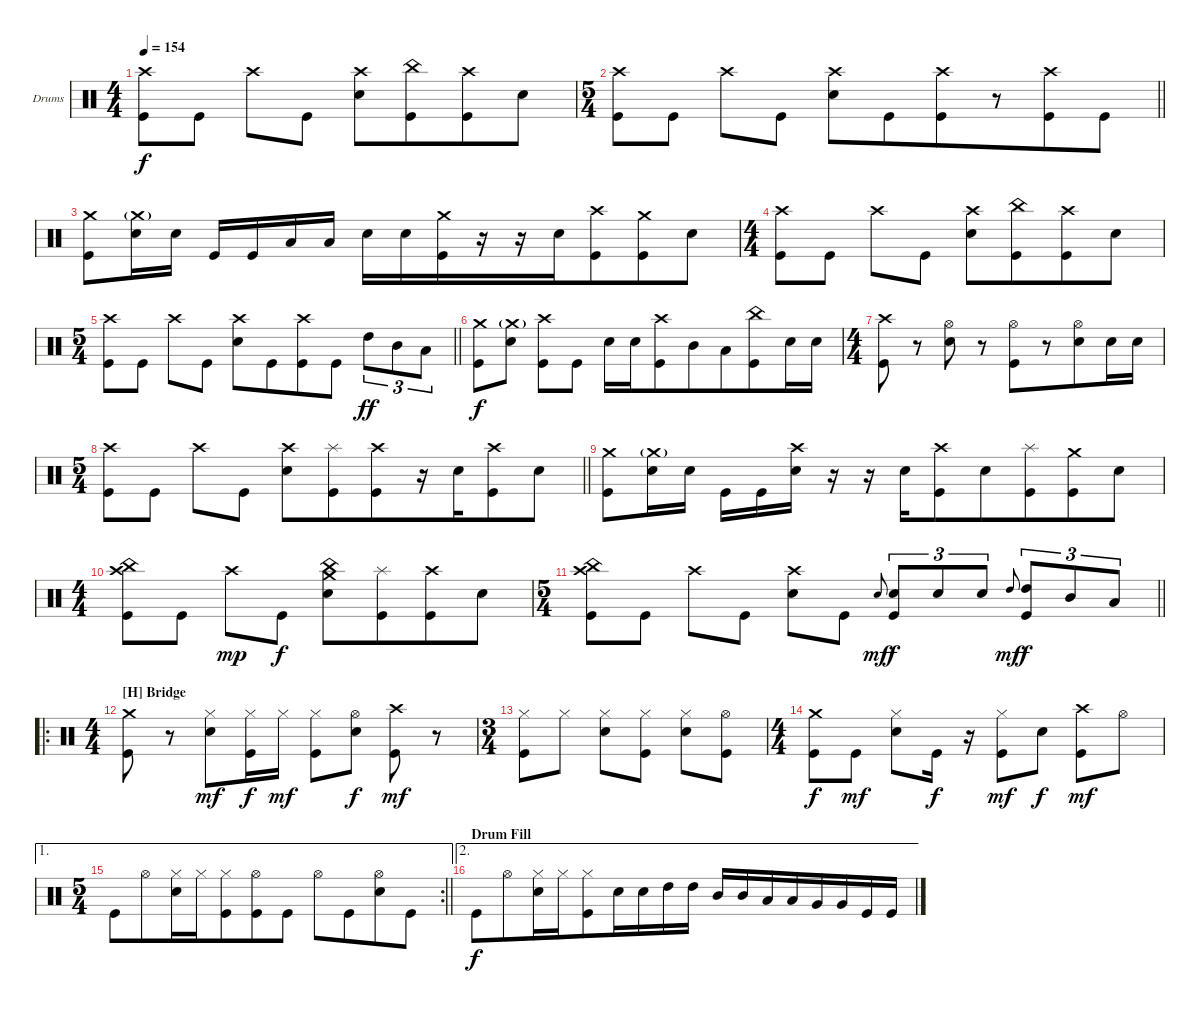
\bracketExtendMode groupsimilarinstruments
\firstSystemTrackNameOrientation horizontal
\otherSystemsTrackNameOrientation horizontal
\track ("Navene Koperweis" "Drums") {instrument percussion}
\staff {score}
\articulation defaults
\ts (4 4)
\beaming (8 2 2 4)
\tempo 154
\clef neutral
\ks c
("Crash high (hit)" "Kick (hit)").8{dy f} "Kick (hit)".8 "Crash high (hit)".8 "Kick (hit)".8 ("Crash high (hit)" "Snare (hit) 2").8 ("China (hit)" "Kick (hit)").8 ("Crash high (hit)" "Kick (hit)").8 "Snare (hit) 2".8 |
\ts (5 4)
\beaming (8 2 2 6)
\barLineRight lightlight
("Crash high (hit)" "Kick (hit)").8 "Kick (hit)".8 "Crash high (hit)".8 "Kick (hit)".8 ("Crash high (hit)" "Snare (hit) 2").8 "Kick (hit)".8 ("Crash high (hit)" "Kick (hit)").8 r.8 ("Crash high (hit)" "Kick (hit)").8 "Kick (hit)".8 |
("Crash medium (hit)" "Kick (hit)").8 ("Crash medium (hit)"{g} "Snare (hit) 2").16 "Snare (hit) 2".16 "Kick (hit)".16 "Kick (hit)".16 "Low Tom (hit)".16 "Low Tom (hit)".16 "Snare (hit) 2".16 "Snare (hit) 2".16 ("Crash medium (hit)" "Kick (hit)").16 r.16 r.16 "Snare (hit) 2".16 ("Crash high (hit)" "Kick (hit)").8 ("Crash medium (hit)" "Kick (hit)").8 "Snare (hit) 2".8 |
\ts (4 4)
\beaming (8 2 2 4)
("Crash high (hit)" "Kick (hit)").8 "Kick (hit)".8 "Crash high (hit)".8 "Kick (hit)".8 ("Crash high (hit)" "Snare (hit) 2").8 ("China (hit)" "Kick (hit)").8 ("Crash high (hit)" "Kick (hit)").8 "Snare (hit) 2".8 |
\ts (5 4)
\beaming (8 2 2 6)
\barLineRight lightlight
("Crash high (hit)" "Kick (hit)").8 "Kick (hit)".8 "Crash high (hit)".8 "Kick (hit)".8 ("Crash high (hit)" "Snare (hit) 2").8 "Kick (hit)".8 ("Crash high (hit)" "Kick (hit)").8 "Kick (hit)".8 "High Tom (hit)".8{tu (3 2) dy ff} "Mid Tom (hit)".8{tu (3 2)} "Low Tom (hit)".8{tu (3 2)} |
("Crash medium (hit)" "Kick (hit)").8{dy f} ("Crash medium (hit)"{g} "Snare (hit) 2").8 ("Crash high (hit)" "Kick (hit)").8 "Kick (hit)".8 "Snare (hit) 2".16 "Snare (hit) 2".16 ("Crash high (hit)" "Kick (hit)").8 "Mid Tom (hit)".8 "Low Tom (hit)".8 ("China (hit)" "Kick (hit)").8 "Snare (hit) 2".16 "Snare (hit) 2".16 |
\ts (4 4)
\beaming (8 2 2 4)
("Crash high (hit)" "Kick (hit)").8 r.8 ("Hi-Hat (open)" "Snare (hit) 2").8 r.8 ("Hi-Hat (open)" "Kick (hit)").8 r.8 ("Hi-Hat (open)" "Snare (hit) 2").8 "Snare (hit) 2".16 "Snare (hit) 2".16 |
\ts (5 4)
\beaming (8 2 2 6)
\barLineRight lightlight
("Crash high (hit)" "Kick (hit)").8 "Kick (hit)".8 "Crash high (hit)".8 "Kick (hit)".8 ("Crash high (hit)" "Snare (hit) 2").8 ("Splash (hit)" "Kick (hit)").8 ("Crash high (hit)" "Kick (hit)").8 r.16 "Snare (hit) 2".16 ("Crash high (hit)" "Kick (hit)").8 "Snare (hit) 2".8 |
("Crash medium (hit)" "Kick (hit)").8 ("Crash medium (hit)"{g} "Snare (hit) 2").16 "Snare (hit) 2".16 "Kick (hit)".16 "Kick (hit)".16 ("Crash high (hit)" "Snare (hit) 2").16 r.16 r.16 "Snare (hit) 2".16 ("Crash high (hit)" "Kick (hit)").8 "Snare (hit) 2".8 ("Splash (hit)" "Kick (hit)").8 ("Crash medium (hit)" "Kick (hit)").8 "Snare (hit) 2".8 |
\ts (4 4)
\beaming (8 2 2 4)
("Crash high (hit)" "China (hit)" "Kick (hit)").8 "Kick (hit)".8 "Crash high (hit)".8{dy mp} "Kick (hit)".8{dy f} ("Crash medium (hit)" "China (hit)" "Snare (hit) 2").8 ("Splash (hit)" "Kick (hit)").8 ("Crash high (hit)" "Kick (hit)").8 "Snare (hit) 2".8 |
\ts (5 4)
\beaming (8 2 2 6)
\barLineRight lightlight
("Crash high (hit)" "China (hit)" "Kick (hit)").8 "Kick (hit)".8 "Crash high (hit)".8 "Kick (hit)".8 ("Crash high (hit)" "Snare (hit) 2").8 "Kick (hit)".8 "Snare (hit) 2".8{gr onbeat dy mf} ("Snare (hit) 2" "Kick (hit)").8{tu (3 2) dy f} "Snare (hit) 2".8{tu (3 2)} "Snare (hit) 2".8{tu (3 2)} "High Tom (hit)".8{gr onbeat dy mf} ("High Tom (hit)" "Kick (hit)").8{tu (3 2) dy f} "Mid Tom (hit)".8{tu (3 2)} "Low Tom (hit)".8{tu (3 2)} |
\ro
\ts (4 4)
\beaming (8 2 2 2 2)
\section ("H" "Bridge")
("Crash medium (hit)" "Kick (hit)").8 r.8 ("Hi-Hat (closed)" "Snare (hit) 2").8{dy mf} ("Hi-Hat (closed)" "Kick (hit)").16{dy f} "Hi-Hat (closed)".16{dy mf} ("Hi-Hat (closed)" "Kick (hit)").8 ("Hi-Hat (open)" "Snare (hit) 2").8{dy f} ("Crash high (hit)" "Kick (hit)").8{dy mf} r.8 |
\ts (3 4)
\beaming (8 2 2 2)
("Hi-Hat (closed)" "Kick (hit)").8 "Hi-Hat (closed)".8 ("Hi-Hat (closed)" "Snare (hit) 2").8 ("Hi-Hat (closed)" "Kick (hit)").8 ("Hi-Hat (closed)" "Snare (hit) 2").8 ("Hi-Hat (open)" "Kick (hit)").8 |
\ts (4 4)
\beaming (8 2 2 2 2)
("Crash medium (hit)" "Kick (hit)").8{dy f} "Kick (hit)".8{dy mf} ("Hi-Hat (closed)" "Snare (hit) 2").8 "Kick (hit)".16{dy f} r.16 ("Hi-Hat (closed)" "Kick (hit)").8{dy mf} "Snare (hit) 2".8{dy f} ("Crash high (hit)" "Kick (hit)").8{dy mf} "Hi-Hat (open)".8 |
\ae 1
\rc 2
\ts (5 4)
\beaming (8 6 4)
\barLineRight lightlight "Kick (hit)".8 "Hi-Hat (open)".8
("Hi-Hat (closed)" "Snare (hit) 2").16 "Hi-Hat (closed)".16 ("Hi-Hat (closed)" "Kick (hit)").8 ("Hi-Hat (open)" "Kick (hit)").8 "Kick (hit)".8 "Hi-Hat (open)".8 "Kick (hit)".8 ("Hi-Hat (open)" "Snare (hit) 2").8 "Kick (hit)".8 |
\ae 2
\section ("" "Drum Fill")
"Kick (hit)".8{dy f} "Hi-Hat (open)".8 ("Hi-Hat (closed)" "Snare (hit) 2").16 "Hi-Hat (closed)".16 ("Hi-Hat (closed)" "Kick (hit)").8 "Snare (hit) 2".16 "Snare (hit) 2".16 "High Tom (hit)".16 "High Tom (hit)".16 "Mid Tom (hit)".16 "Mid Tom (hit)".16 "Low Tom (hit)".16 "Low Tom (hit)".16 "Very Low Tom (hit)".16 "Very Low Tom (hit)".16 "Kick (hit)".16 "Kick (hit)".16
